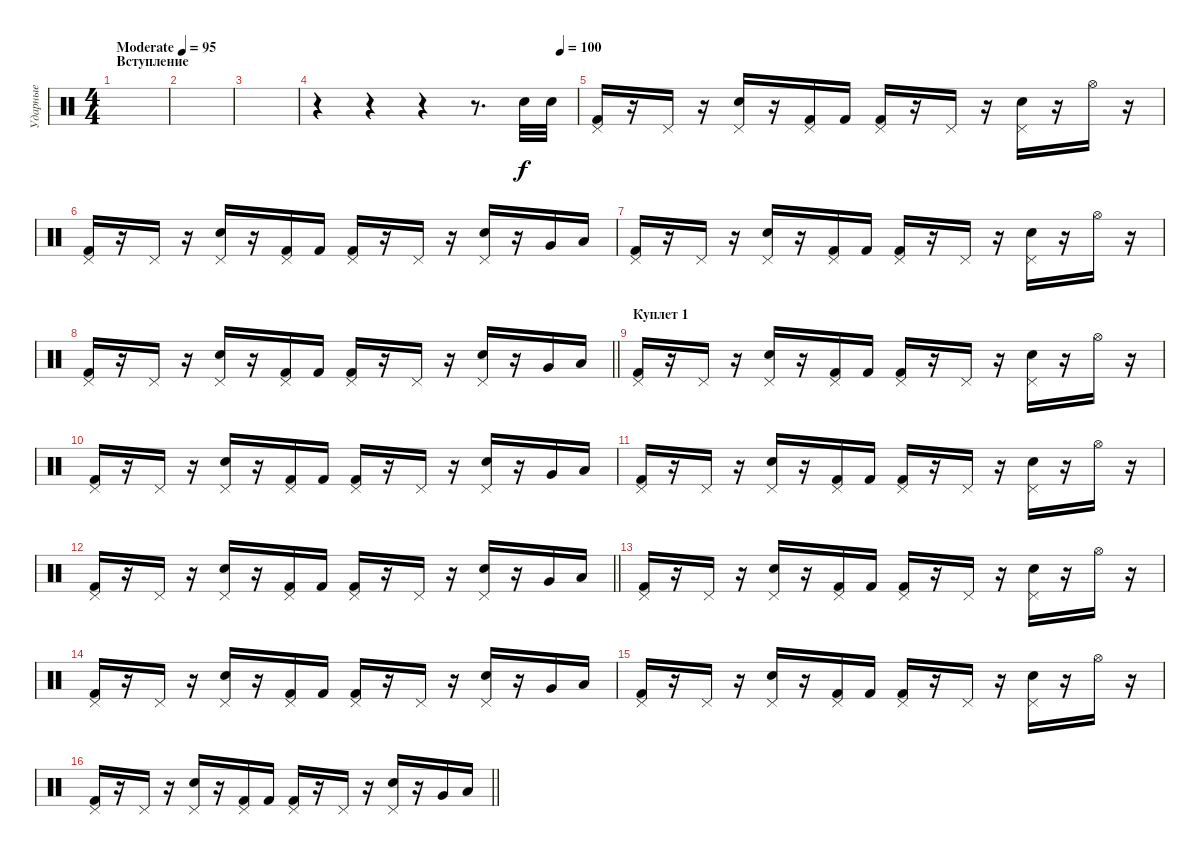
\track ("Ударные" "Ударные") {instrument percussion}
\staff {score}
\articulation defaults
\ts (4 4)
\section ("" "Вступление")
\tempo (95 "Moderate")
\clef neutral
\ks c
|
|
|
\tempo (100 0.9375)
r.4 r.4 r.4 r.8{d} "Snare (hit) 2".32 "Snare (hit) 2".32 |
("Pedal Hi-Hat (hit)" "Kick (hit) 2").16 r.16 "Pedal Hi-Hat (hit)".16 r.16 ("Pedal Hi-Hat (hit)" "Snare (hit) 2").16 r.16 ("Pedal Hi-Hat (hit)" "Kick (hit) 2").16 "Kick (hit) 2".16 ("Pedal Hi-Hat (hit)" "Kick (hit) 2").16 r.16 "Pedal Hi-Hat (hit)".16 r.16 ("Pedal Hi-Hat (hit)" "Snare (hit) 2").16 r.16 "Hi-Hat (open)".16 r.16 |
("Pedal Hi-Hat (hit)" "Kick (hit) 2").16 r.16 "Pedal Hi-Hat (hit)".16 r.16 ("Pedal Hi-Hat (hit)" "Snare (hit) 2").16 r.16 ("Pedal Hi-Hat (hit)" "Kick (hit) 2").16 "Kick (hit) 2".16 ("Pedal Hi-Hat (hit)" "Kick (hit) 2").16 r.16 "Pedal Hi-Hat (hit)".16 r.16 ("Pedal Hi-Hat (hit)" "Snare (hit) 2").16 r.16 "Very Low Tom (hit)".16 "Low Floor Tom (hit)".16 |
("Pedal Hi-Hat (hit)" "Kick (hit) 2").16 r.16 "Pedal Hi-Hat (hit)".16 r.16 ("Pedal Hi-Hat (hit)" "Snare (hit) 2").16 r.16 ("Pedal Hi-Hat (hit)" "Kick (hit) 2").16 "Kick (hit) 2".16 ("Pedal Hi-Hat (hit)" "Kick (hit) 2").16 r.16 "Pedal Hi-Hat (hit)".16 r.16 ("Pedal Hi-Hat (hit)" "Snare (hit) 2").16 r.16 "Hi-Hat (open)".16 r.16 |
\barLineRight lightlight
("Pedal Hi-Hat (hit)" "Kick (hit) 2").16 r.16 "Pedal Hi-Hat (hit)".16 r.16 ("Pedal Hi-Hat (hit)" "Snare (hit) 2").16 r.16 ("Pedal Hi-Hat (hit)" "Kick (hit) 2").16 "Kick (hit) 2".16 ("Pedal Hi-Hat (hit)" "Kick (hit) 2").16 r.16 "Pedal Hi-Hat (hit)".16 r.16 ("Pedal Hi-Hat (hit)" "Snare (hit) 2").16 r.16 "Very Low Tom (hit)".16 "Low Floor Tom (hit)".16 |
\section ("" "Куплет 1")
("Pedal Hi-Hat (hit)" "Kick (hit) 2").16 r.16 "Pedal Hi-Hat (hit)".16 r.16 ("Pedal Hi-Hat (hit)" "Snare (hit) 2").16 r.16 ("Pedal Hi-Hat (hit)" "Kick (hit) 2").16 "Kick (hit) 2".16 ("Pedal Hi-Hat (hit)" "Kick (hit) 2").16 r.16 "Pedal Hi-Hat (hit)".16 r.16 ("Pedal Hi-Hat (hit)" "Snare (hit) 2").16 r.16 "Hi-Hat (open)".16 r.16 |
("Pedal Hi-Hat (hit)" "Kick (hit) 2").16 r.16 "Pedal Hi-Hat (hit)".16 r.16 ("Pedal Hi-Hat (hit)" "Snare (hit) 2").16 r.16 ("Pedal Hi-Hat (hit)" "Kick (hit) 2").16 "Kick (hit) 2".16 ("Pedal Hi-Hat (hit)" "Kick (hit) 2").16 r.16 "Pedal Hi-Hat (hit)".16 r.16 ("Pedal Hi-Hat (hit)" "Snare (hit) 2").16 r.16 "Very Low Tom (hit)".16 "Low Floor Tom (hit)".16 |
("Pedal Hi-Hat (hit)" "Kick (hit) 2").16 r.16 "Pedal Hi-Hat (hit)".16 r.16 ("Pedal Hi-Hat (hit)" "Snare (hit) 2").16 r.16 ("Pedal Hi-Hat (hit)" "Kick (hit) 2").16 "Kick (hit) 2".16 ("Pedal Hi-Hat (hit)" "Kick (hit) 2").16 r.16 "Pedal Hi-Hat (hit)".16 r.16 ("Pedal Hi-Hat (hit)" "Snare (hit) 2").16 r.16 "Hi-Hat (open)".16 r.16 |
\barLineRight lightlight
("Pedal Hi-Hat (hit)" "Kick (hit) 2").16 r.16 "Pedal Hi-Hat (hit)".16 r.16 ("Pedal Hi-Hat (hit)" "Snare (hit) 2").16 r.16 ("Pedal Hi-Hat (hit)" "Kick (hit) 2").16 "Kick (hit) 2".16 ("Pedal Hi-Hat (hit)" "Kick (hit) 2").16 r.16 "Pedal Hi-Hat (hit)".16 r.16 ("Pedal Hi-Hat (hit)" "Snare (hit) 2").16 r.16 "Very Low Tom (hit)".16 "Low Floor Tom (hit)".16 |
("Pedal Hi-Hat (hit)" "Kick (hit) 2").16 r.16 "Pedal Hi-Hat (hit)".16 r.16 ("Pedal Hi-Hat (hit)" "Snare (hit) 2").16 r.16 ("Pedal Hi-Hat (hit)" "Kick (hit) 2").16 "Kick (hit) 2".16 ("Pedal Hi-Hat (hit)" "Kick (hit) 2").16 r.16 "Pedal Hi-Hat (hit)".16 r.16 ("Pedal Hi-Hat (hit)" "Snare (hit) 2").16 r.16 "Hi-Hat (open)".16 r.16 |
("Pedal Hi-Hat (hit)" "Kick (hit) 2").16 r.16 "Pedal Hi-Hat (hit)".16 r.16 ("Pedal Hi-Hat (hit)" "Snare (hit) 2").16 r.16 ("Pedal Hi-Hat (hit)" "Kick (hit) 2").16 "Kick (hit) 2".16 ("Pedal Hi-Hat (hit)" "Kick (hit) 2").16 r.16 "Pedal Hi-Hat (hit)".16 r.16 ("Pedal Hi-Hat (hit)" "Snare (hit) 2").16 r.16 "Very Low Tom (hit)".16 "Low Floor Tom (hit)".16 |
("Pedal Hi-Hat (hit)" "Kick (hit) 2").16 r.16 "Pedal Hi-Hat (hit)".16 r.16 ("Pedal Hi-Hat (hit)" "Snare (hit) 2").16 r.16 ("Pedal Hi-Hat (hit)" "Kick (hit) 2").16 "Kick (hit) 2".16 ("Pedal Hi-Hat (hit)" "Kick (hit) 2").16 r.16 "Pedal Hi-Hat (hit)".16 r.16 ("Pedal Hi-Hat (hit)" "Snare (hit) 2").16 r.16 "Hi-Hat (open)".16 r.16 |
\barLineRight lightlight
("Pedal Hi-Hat (hit)" "Kick (hit) 2").16 r.16 "Pedal Hi-Hat (hit)".16 r.16 ("Pedal Hi-Hat (hit)" "Snare (hit) 2").16 r.16 ("Pedal Hi-Hat (hit)" "Kick (hit) 2").16 "Kick (hit) 2".16 ("Pedal Hi-Hat (hit)" "Kick (hit) 2").16 r.16 "Pedal Hi-Hat (hit)".16 r.16 ("Pedal Hi-Hat (hit)" "Snare (hit) 2").16 r.16 "Very Low Tom (hit)".16 "Low Floor Tom (hit)".16
